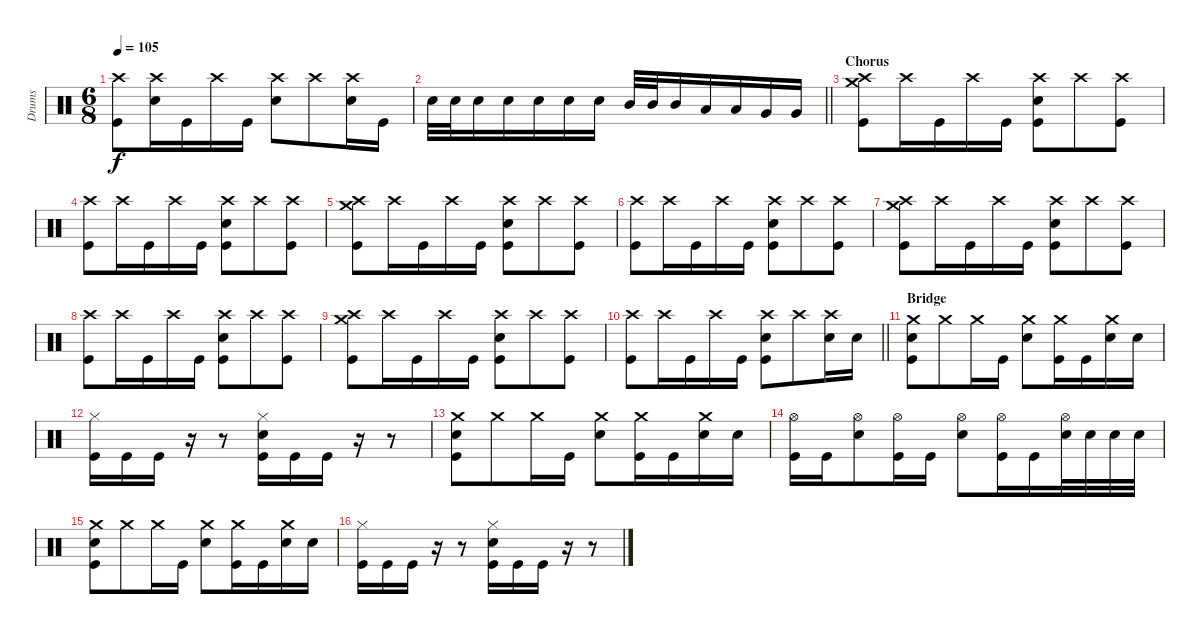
\track ("Drums" "Drums") {instrument percussion}
\staff {score}
\articulation defaults
\ts (6 8)
\tempo 105
\clef neutral
\ks c
("Crash high (hit)" "Kick (hit)").8{dy f} ("Crash high (hit)" "Electric Snare (hit)").16 "Kick (hit)".16 "Crash high (hit)".16 "Kick (hit)".16 ("Crash high (hit)" "Electric Snare (hit)").8 "Crash high (hit)".8 ("Crash high (hit)" "Electric Snare (hit)").16 "Kick (hit)".16 |
\barLineRight lightlight "Electric Snare (hit)".32 "Electric Snare (hit)".32 "Electric Snare (hit)".16 "Electric Snare (hit)".16 "Electric Snare (hit)".16 "Electric Snare (hit)".16 "Electric Snare (hit)".16 "Mid Tom (hit)".32 "Mid Tom (hit)".32 "Mid Tom (hit)".16 "Low Tom (hit)".16 "Low Tom (hit)".16 "Very Low Tom (hit)".16 "Very Low Tom (hit)".16
|
\section ("" "Chorus")
("Crash medium (hit)" "Crash high (hit)" "Kick (hit)").8 "Crash high (hit)".16 "Kick (hit)".16 "Crash high (hit)".16 "Kick (hit)".16 ("Crash high (hit)" "Electric Snare (hit)" "Kick (hit)").8 "Crash high (hit)".8 ("Crash high (hit)" "Kick (hit)").8 |
("Crash high (hit)" "Kick (hit)").8 "Crash high (hit)".16 "Kick (hit)".16 "Crash high (hit)".16 "Kick (hit)".16 ("Crash high (hit)" "Electric Snare (hit)" "Kick (hit)").8 "Crash high (hit)".8 ("Crash high (hit)" "Kick (hit)").8 |
("Crash medium (hit)" "Crash high (hit)" "Kick (hit)").8 "Crash high (hit)".16 "Kick (hit)".16 "Crash high (hit)".16 "Kick (hit)".16 ("Crash high (hit)" "Electric Snare (hit)" "Kick (hit)").8 "Crash high (hit)".8 ("Crash high (hit)" "Kick (hit)").8 |
("Crash high (hit)" "Kick (hit)").8 "Crash high (hit)".16 "Kick (hit)".16 "Crash high (hit)".16 "Kick (hit)".16 ("Crash high (hit)" "Electric Snare (hit)" "Kick (hit)").8 "Crash high (hit)".8 ("Crash high (hit)" "Kick (hit)").8 |
("Crash medium (hit)" "Crash high (hit)" "Kick (hit)").8 "Crash high (hit)".16 "Kick (hit)".16 "Crash high (hit)".16 "Kick (hit)".16 ("Crash high (hit)" "Electric Snare (hit)" "Kick (hit)").8 "Crash high (hit)".8 ("Crash high (hit)" "Kick (hit)").8 |
("Crash high (hit)" "Kick (hit)").8 "Crash high (hit)".16 "Kick (hit)".16 "Crash high (hit)".16 "Kick (hit)".16 ("Crash high (hit)" "Electric Snare (hit)" "Kick (hit)").8 "Crash high (hit)".8 ("Crash high (hit)" "Kick (hit)").8 |
("Crash medium (hit)" "Crash high (hit)" "Kick (hit)").8 "Crash high (hit)".16 "Kick (hit)".16 "Crash high (hit)".16 "Kick (hit)".16 ("Crash high (hit)" "Electric Snare (hit)" "Kick (hit)").8 "Crash high (hit)".8 ("Crash high (hit)" "Kick (hit)").8 |
\barLineRight lightlight
("Crash high (hit)" "Kick (hit)").8 "Crash high (hit)".16 "Kick (hit)".16 "Crash high (hit)".16 "Kick (hit)".16 ("Crash high (hit)" "Electric Snare (hit)" "Kick (hit)").8 "Crash high (hit)".8 ("Crash high (hit)" "Electric Snare (hit)").16 "Electric Snare (hit)".16 |
\section ("" "Bridge")
("Crash medium (hit)" "Electric Snare (hit)" "Kick (hit)").8 "Crash medium (hit)".8 "Crash medium (hit)".16 "Kick (hit)".16 ("Crash medium (hit)" "Electric Snare (hit)").8 ("Crash medium (hit)" "Kick (hit)").16 "Kick (hit)".16 ("Crash medium (hit)" "Electric Snare (hit)").16 "Electric Snare (hit)".16 |
("Hi-Hat (closed)" "Kick (hit)").16 "Kick (hit)".16 "Kick (hit)".16 r.16 r.8 ("Hi-Hat (closed)" "Electric Snare (hit)" "Kick (hit)").16 "Kick (hit)".16 "Kick (hit)".16 r.16 r.8 |
("Crash medium (hit)" "Electric Snare (hit)" "Kick (hit)").8 "Crash medium (hit)".8 "Crash medium (hit)".16 "Kick (hit)".16 ("Crash medium (hit)" "Electric Snare (hit)").8 ("Crash medium (hit)" "Kick (hit)").16 "Kick (hit)".16 ("Crash medium (hit)" "Electric Snare (hit)").16 "Electric Snare (hit)".16 |
("Hi-Hat (open)" "Kick (hit)").16 "Kick (hit)".16 ("Hi-Hat (open)" "Electric Snare (hit)").8 ("Hi-Hat (open)" "Kick (hit)").16 "Kick (hit)".16 ("Hi-Hat (open)" "Electric Snare (hit)").8 ("Hi-Hat (open)" "Kick (hit)").16 "Kick (hit)".16 ("Hi-Hat (open)" "Electric Snare (hit)").32 "Electric Snare (hit)".32 "Electric Snare (hit)".32 "Electric Snare (hit)".32 |
("Crash medium (hit)" "Electric Snare (hit)" "Kick (hit)").8 "Crash medium (hit)".8 "Crash medium (hit)".16 "Kick (hit)".16 ("Crash medium (hit)" "Electric Snare (hit)").8 ("Crash medium (hit)" "Kick (hit)").16 "Kick (hit)".16 ("Crash medium (hit)" "Electric Snare (hit)").16 "Electric Snare (hit)".16 |
("Hi-Hat (closed)" "Kick (hit)").16 "Kick (hit)".16 "Kick (hit)".16 r.16 r.8 ("Hi-Hat (closed)" "Electric Snare (hit)" "Kick (hit)").16 "Kick (hit)".16 "Kick (hit)".16 r.16 r.8
